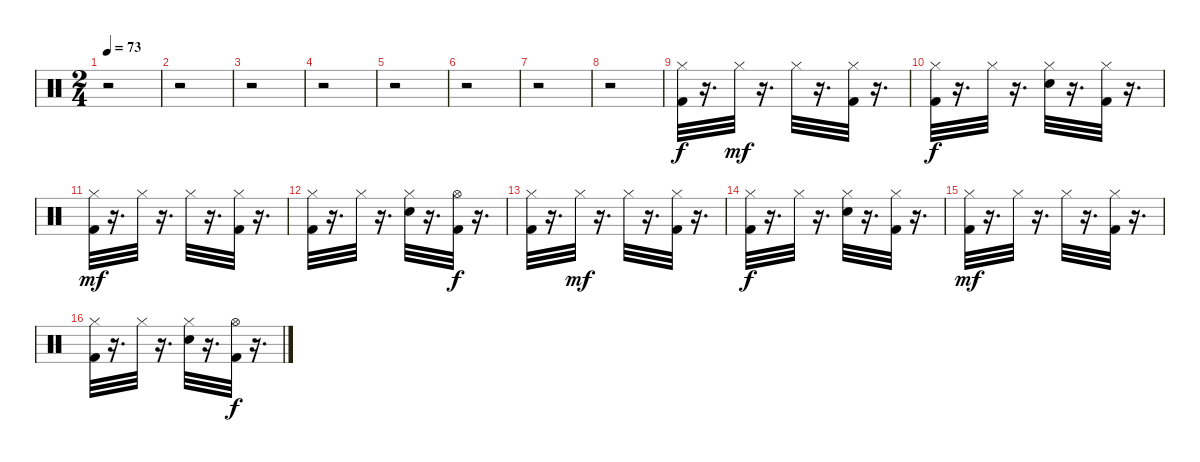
\track "" {instrument percussion}
\staff {score}
\articulation defaults
\ts (2 4)
\tempo 73
\clef neutral
\ks c
r.2{dy f} |
r.2 |
r.2 |
r.2 |
r.2 |
r.2 |
r.2 |
r.2 |
("Hi-Hat (closed)" "Kick (hit) 2").32 r.16{d} "Hi-Hat (closed)".32{dy mf} r.16{d} "Hi-Hat (closed)".32 r.16{d} ("Hi-Hat (closed)" "Kick (hit) 2").32 r.16{d} |
("Hi-Hat (closed)" "Kick (hit) 2").32{dy f} r.16{d} "Hi-Hat (closed)".32 r.16{d} ("Hi-Hat (closed)" "Snare (hit) 2").32 r.16{d} ("Kick (hit) 2" "Hi-Hat (closed)").32 r.16{d} |
("Kick (hit) 2" "Hi-Hat (closed)").32{dy mf} r.16{d} "Hi-Hat (closed)".32 r.16{d} "Hi-Hat (closed)".32 r.16{d} ("Hi-Hat (closed)" "Kick (hit) 2").32 r.16{d} |
("Hi-Hat (closed)" "Kick (hit) 2").32 r.16{d} "Hi-Hat (closed)".32 r.16{d} ("Hi-Hat (closed)" "Snare (hit) 2").32 r.16{d} ("Hi-Hat (open)" "Kick (hit) 2").32{dy f} r.16{d} |
("Hi-Hat (closed)" "Kick (hit) 2").32 r.16{d} "Hi-Hat (closed)".32{dy mf} r.16{d} "Hi-Hat (closed)".32 r.16{d} ("Hi-Hat (closed)" "Kick (hit) 2").32 r.16{d} |
("Hi-Hat (closed)" "Kick (hit) 2").32{dy f} r.16{d} "Hi-Hat (closed)".32 r.16{d} ("Hi-Hat (closed)" "Snare (hit) 2").32 r.16{d} ("Kick (hit) 2" "Hi-Hat (closed)").32 r.16{d} |
("Kick (hit) 2" "Hi-Hat (closed)").32{dy mf} r.16{d} "Hi-Hat (closed)".32 r.16{d} "Hi-Hat (closed)".32 r.16{d} ("Hi-Hat (closed)" "Kick (hit) 2").32 r.16{d} |
("Hi-Hat (closed)" "Kick (hit) 2").32 r.16{d} "Hi-Hat (closed)".32 r.16{d} ("Hi-Hat (closed)" "Snare (hit) 2").32 r.16{d} ("Hi-Hat (open)" "Kick (hit) 2").32{dy f} r.16{d}
